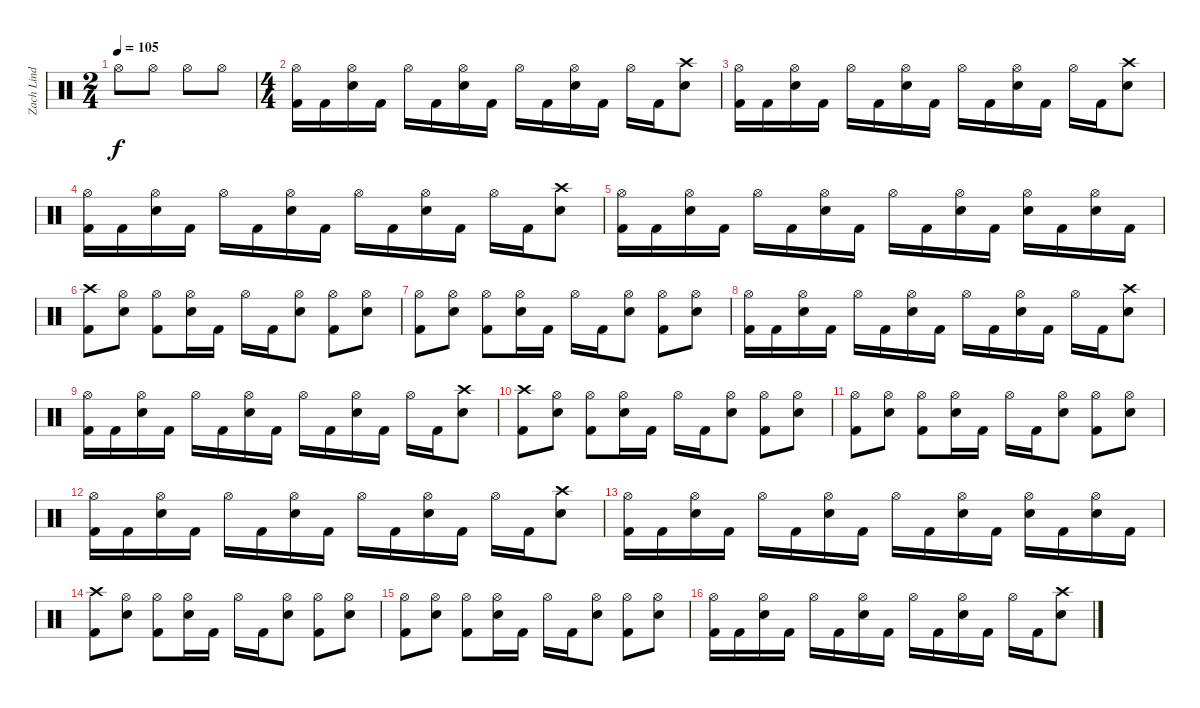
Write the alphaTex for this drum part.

\track ("Zach Lind" "Zach Lind") {instrument percussion}
\staff {score}
\articulation defaults
\ts (2 4)
\tempo 105
\clef neutral
\ks c "Hi-Hat (open)".8{dy f} "Hi-Hat (open)".8 "Hi-Hat (open)".8 "Hi-Hat (open)".8
|
\ts (4 4)
("Hi-Hat (open)" "Kick (hit) 2").16 "Kick (hit) 2".16 ("Hi-Hat (open)" "Snare (hit) 2").16 "Kick (hit) 2".16 "Hi-Hat (open)".16 "Kick (hit) 2".16 ("Hi-Hat (open)" "Snare (hit) 2").16 "Kick (hit) 2".16 "Hi-Hat (open)".16 "Kick (hit) 2".16 ("Hi-Hat (open)" "Snare (hit) 2").16 "Kick (hit) 2".16 "Hi-Hat (open)".16 "Kick (hit) 2".16 ("Crash high (hit)" "Snare (hit) 2").8 |
("Hi-Hat (open)" "Kick (hit) 2").16 "Kick (hit) 2".16 ("Hi-Hat (open)" "Snare (hit) 2").16 "Kick (hit) 2".16 "Hi-Hat (open)".16 "Kick (hit) 2".16 ("Hi-Hat (open)" "Snare (hit) 2").16 "Kick (hit) 2".16 "Hi-Hat (open)".16 "Kick (hit) 2".16 ("Hi-Hat (open)" "Snare (hit) 2").16 "Kick (hit) 2".16 "Hi-Hat (open)".16 "Kick (hit) 2".16 ("Crash high (hit)" "Snare (hit) 2").8 |
("Hi-Hat (open)" "Kick (hit) 2").16 "Kick (hit) 2".16 ("Hi-Hat (open)" "Snare (hit) 2").16 "Kick (hit) 2".16 "Hi-Hat (open)".16 "Kick (hit) 2".16 ("Hi-Hat (open)" "Snare (hit) 2").16 "Kick (hit) 2".16 "Hi-Hat (open)".16 "Kick (hit) 2".16 ("Hi-Hat (open)" "Snare (hit) 2").16 "Kick (hit) 2".16 "Hi-Hat (open)".16 "Kick (hit) 2".16 ("Crash high (hit)" "Snare (hit) 2").8 |
("Hi-Hat (open)" "Kick (hit) 2").16 "Kick (hit) 2".16 ("Hi-Hat (open)" "Snare (hit) 2").16 "Kick (hit) 2".16 "Hi-Hat (open)".16 "Kick (hit) 2".16 ("Hi-Hat (open)" "Snare (hit) 2").16 "Kick (hit) 2".16 "Hi-Hat (open)".16 "Kick (hit) 2".16 ("Hi-Hat (open)" "Snare (hit) 2").16 "Kick (hit) 2".16 ("Hi-Hat (open)" "Snare (hit) 2").16 "Kick (hit) 2".16 ("Hi-Hat (open)" "Snare (hit) 2").16 "Kick (hit) 2".16 |
("Crash high (hit)" "Kick (hit) 2").8 ("Hi-Hat (open)" "Snare (hit) 2").8 ("Hi-Hat (open)" "Kick (hit) 2").8 ("Hi-Hat (open)" "Snare (hit) 2").16 "Kick (hit) 2".16 "Hi-Hat (open)".16 "Kick (hit) 2".16 ("Hi-Hat (open)" "Snare (hit) 2").8 ("Hi-Hat (open)" "Kick (hit) 2").8 ("Hi-Hat (open)" "Snare (hit) 2").8 |
("Hi-Hat (open)" "Kick (hit) 2").8 ("Hi-Hat (open)" "Snare (hit) 2").8 ("Hi-Hat (open)" "Kick (hit) 2").8 ("Hi-Hat (open)" "Snare (hit) 2").16 "Kick (hit) 2".16 "Hi-Hat (open)".16 "Kick (hit) 2".16 ("Hi-Hat (open)" "Snare (hit) 2").8 ("Hi-Hat (open)" "Kick (hit) 2").8 ("Hi-Hat (open)" "Snare (hit) 2").8 |
("Hi-Hat (open)" "Kick (hit) 2").16 "Kick (hit) 2".16 ("Hi-Hat (open)" "Snare (hit) 2").16 "Kick (hit) 2".16 "Hi-Hat (open)".16 "Kick (hit) 2".16 ("Hi-Hat (open)" "Snare (hit) 2").16 "Kick (hit) 2".16 "Hi-Hat (open)".16 "Kick (hit) 2".16 ("Hi-Hat (open)" "Snare (hit) 2").16 "Kick (hit) 2".16 "Hi-Hat (open)".16 "Kick (hit) 2".16 ("Crash high (hit)" "Snare (hit) 2").8 |
("Hi-Hat (open)" "Kick (hit) 2").16 "Kick (hit) 2".16 ("Hi-Hat (open)" "Snare (hit) 2").16 "Kick (hit) 2".16 "Hi-Hat (open)".16 "Kick (hit) 2".16 ("Hi-Hat (open)" "Snare (hit) 2").16 "Kick (hit) 2".16 "Hi-Hat (open)".16 "Kick (hit) 2".16 ("Hi-Hat (open)" "Snare (hit) 2").16 "Kick (hit) 2".16 "Hi-Hat (open)".16 "Kick (hit) 2".16 ("Crash high (hit)" "Snare (hit) 2").8 |
("Crash high (hit)" "Kick (hit) 2").8 ("Hi-Hat (open)" "Snare (hit) 2").8 ("Hi-Hat (open)" "Kick (hit) 2").8 ("Hi-Hat (open)" "Snare (hit) 2").16 "Kick (hit) 2".16 "Hi-Hat (open)".16 "Kick (hit) 2".16 ("Hi-Hat (open)" "Snare (hit) 2").8 ("Hi-Hat (open)" "Kick (hit) 2").8 ("Hi-Hat (open)" "Snare (hit) 2").8 |
("Hi-Hat (open)" "Kick (hit) 2").8 ("Hi-Hat (open)" "Snare (hit) 2").8 ("Hi-Hat (open)" "Kick (hit) 2").8 ("Hi-Hat (open)" "Snare (hit) 2").16 "Kick (hit) 2".16 "Hi-Hat (open)".16 "Kick (hit) 2".16 ("Hi-Hat (open)" "Snare (hit) 2").8 ("Hi-Hat (open)" "Kick (hit) 2").8 ("Hi-Hat (open)" "Snare (hit) 2").8 |
("Hi-Hat (open)" "Kick (hit) 2").16 "Kick (hit) 2".16 ("Hi-Hat (open)" "Snare (hit) 2").16 "Kick (hit) 2".16 "Hi-Hat (open)".16 "Kick (hit) 2".16 ("Hi-Hat (open)" "Snare (hit) 2").16 "Kick (hit) 2".16 "Hi-Hat (open)".16 "Kick (hit) 2".16 ("Hi-Hat (open)" "Snare (hit) 2").16 "Kick (hit) 2".16 "Hi-Hat (open)".16 "Kick (hit) 2".16 ("Crash high (hit)" "Snare (hit) 2").8 |
("Hi-Hat (open)" "Kick (hit) 2").16 "Kick (hit) 2".16 ("Hi-Hat (open)" "Snare (hit) 2").16 "Kick (hit) 2".16 "Hi-Hat (open)".16 "Kick (hit) 2".16 ("Hi-Hat (open)" "Snare (hit) 2").16 "Kick (hit) 2".16 "Hi-Hat (open)".16 "Kick (hit) 2".16 ("Hi-Hat (open)" "Snare (hit) 2").16 "Kick (hit) 2".16 ("Hi-Hat (open)" "Snare (hit) 2").16 "Kick (hit) 2".16 ("Hi-Hat (open)" "Snare (hit) 2").16 "Kick (hit) 2".16 |
("Crash high (hit)" "Kick (hit) 2").8 ("Hi-Hat (open)" "Snare (hit) 2").8 ("Hi-Hat (open)" "Kick (hit) 2").8 ("Hi-Hat (open)" "Snare (hit) 2").16 "Kick (hit) 2".16 "Hi-Hat (open)".16 "Kick (hit) 2".16 ("Hi-Hat (open)" "Snare (hit) 2").8 ("Hi-Hat (open)" "Kick (hit) 2").8 ("Hi-Hat (open)" "Snare (hit) 2").8 |
("Hi-Hat (open)" "Kick (hit) 2").8 ("Hi-Hat (open)" "Snare (hit) 2").8 ("Hi-Hat (open)" "Kick (hit) 2").8 ("Hi-Hat (open)" "Snare (hit) 2").16 "Kick (hit) 2".16 "Hi-Hat (open)".16 "Kick (hit) 2".16 ("Hi-Hat (open)" "Snare (hit) 2").8 ("Hi-Hat (open)" "Kick (hit) 2").8 ("Hi-Hat (open)" "Snare (hit) 2").8 |
("Hi-Hat (open)" "Kick (hit) 2").16 "Kick (hit) 2".16 ("Hi-Hat (open)" "Snare (hit) 2").16 "Kick (hit) 2".16 "Hi-Hat (open)".16 "Kick (hit) 2".16 ("Hi-Hat (open)" "Snare (hit) 2").16 "Kick (hit) 2".16 "Hi-Hat (open)".16 "Kick (hit) 2".16 ("Hi-Hat (open)" "Snare (hit) 2").16 "Kick (hit) 2".16 "Hi-Hat (open)".16 "Kick (hit) 2".16 ("Crash high (hit)" "Snare (hit) 2").8
